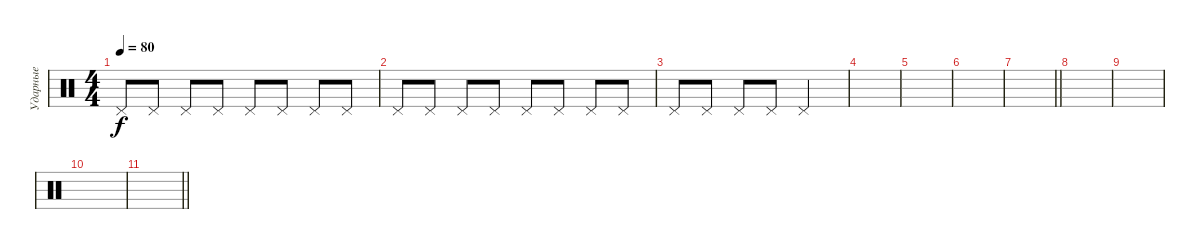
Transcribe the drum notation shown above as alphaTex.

\track ("Ударные" "Ударные") {instrument percussion}
\staff {score}
\articulation defaults
\ts (4 4)
\tempo 80
\clef neutral
\ks c "Pedal Hi-Hat (hit)".8{dy f} "Pedal Hi-Hat (hit)".8 "Pedal Hi-Hat (hit)".8 "Pedal Hi-Hat (hit)".8 "Pedal Hi-Hat (hit)".8 "Pedal Hi-Hat (hit)".8 "Pedal Hi-Hat (hit)".8 "Pedal Hi-Hat (hit)".8
|
"Pedal Hi-Hat (hit)".8 "Pedal Hi-Hat (hit)".8 "Pedal Hi-Hat (hit)".8 "Pedal Hi-Hat (hit)".8 "Pedal Hi-Hat (hit)".8 "Pedal Hi-Hat (hit)".8 "Pedal Hi-Hat (hit)".8 "Pedal Hi-Hat (hit)".8 |
"Pedal Hi-Hat (hit)".8 "Pedal Hi-Hat (hit)".8 "Pedal Hi-Hat (hit)".8 "Pedal Hi-Hat (hit)".8 "Pedal Hi-Hat (hit)".2 |
|
|
|
\barLineRight lightlight
|
|
|
|
\barLineRight lightlight
